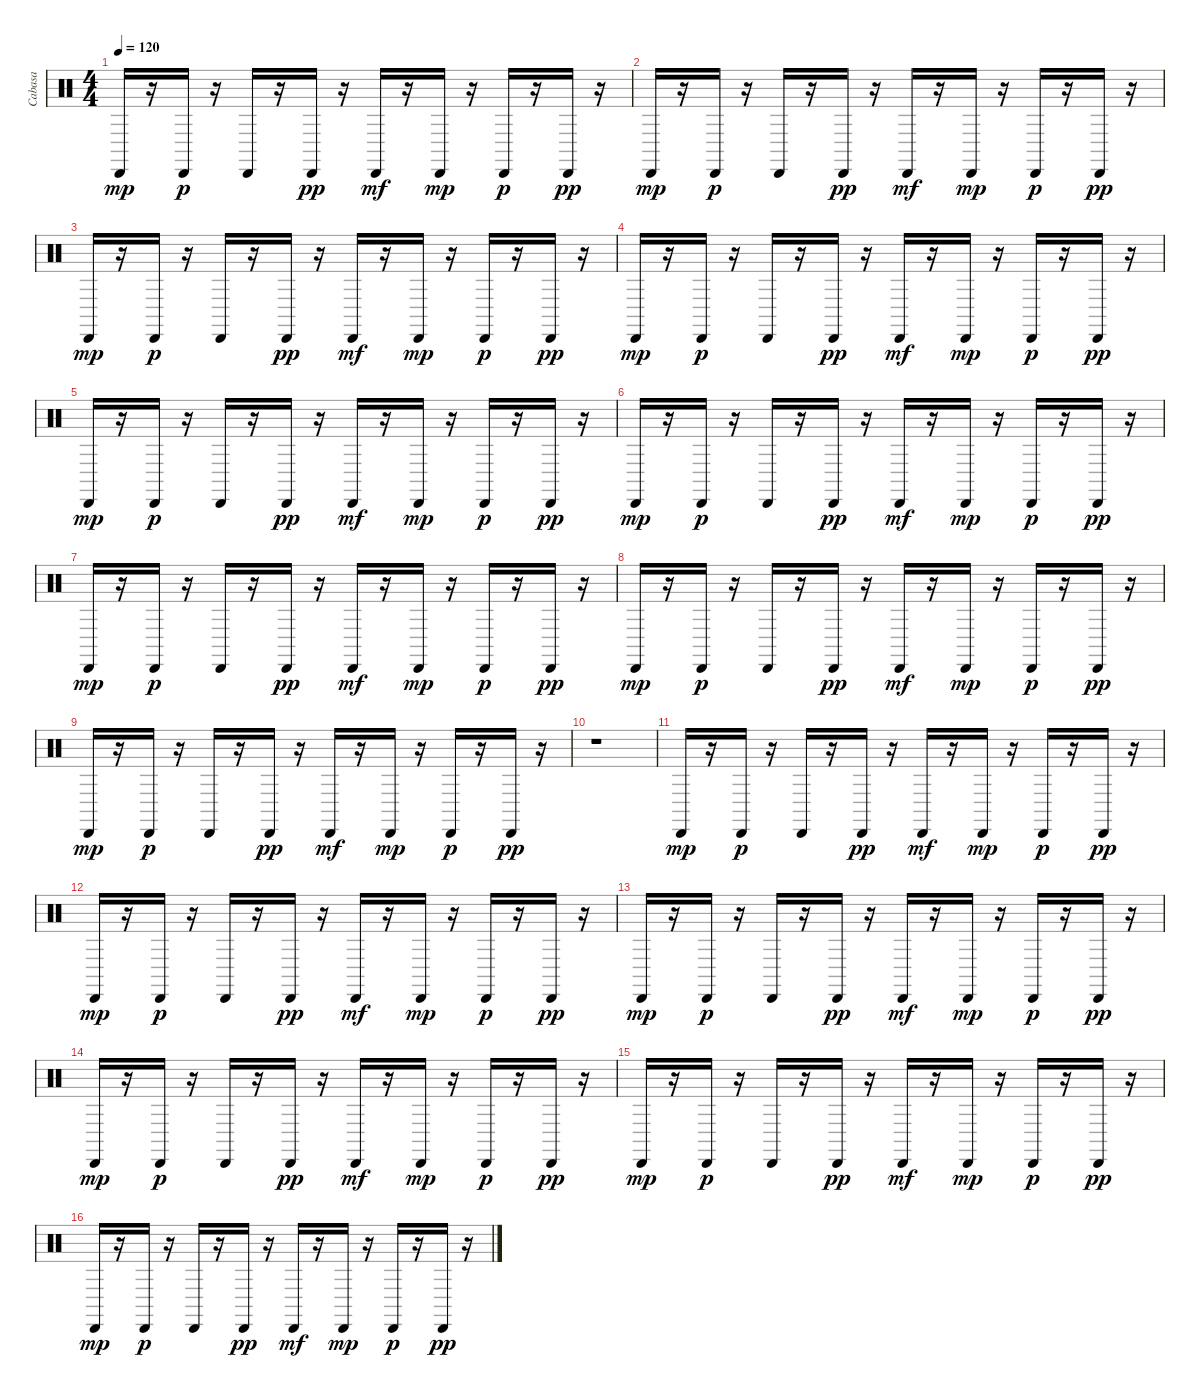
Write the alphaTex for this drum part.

\track ("Cabasa" "Cabasa") {instrument percussion}
\staff {score}
\articulation defaults
\ts (4 4)
\tempo 120
\clef neutral
\ks c "Cabasa (hit)".16{dy mp}
r.16 "Cabasa (hit)".16{dy p} r.16 "Cabasa (hit)".16 r.16 "Cabasa (hit)".16{dy pp} r.16 "Cabasa (hit)".16{dy mf} r.16 "Cabasa (hit)".16{dy mp} r.16 "Cabasa (hit)".16{dy p} r.16 "Cabasa (hit)".16{dy pp} r.16 |
"Cabasa (hit)".16{dy mp} r.16 "Cabasa (hit)".16{dy p} r.16 "Cabasa (hit)".16 r.16 "Cabasa (hit)".16{dy pp} r.16 "Cabasa (hit)".16{dy mf} r.16 "Cabasa (hit)".16{dy mp} r.16 "Cabasa (hit)".16{dy p} r.16 "Cabasa (hit)".16{dy pp} r.16 |
"Cabasa (hit)".16{dy mp} r.16 "Cabasa (hit)".16{dy p} r.16 "Cabasa (hit)".16 r.16 "Cabasa (hit)".16{dy pp} r.16 "Cabasa (hit)".16{dy mf} r.16 "Cabasa (hit)".16{dy mp} r.16 "Cabasa (hit)".16{dy p} r.16 "Cabasa (hit)".16{dy pp} r.16 |
"Cabasa (hit)".16{dy mp} r.16 "Cabasa (hit)".16{dy p} r.16 "Cabasa (hit)".16 r.16 "Cabasa (hit)".16{dy pp} r.16 "Cabasa (hit)".16{dy mf} r.16 "Cabasa (hit)".16{dy mp} r.16 "Cabasa (hit)".16{dy p} r.16 "Cabasa (hit)".16{dy pp} r.16 |
"Cabasa (hit)".16{dy mp} r.16 "Cabasa (hit)".16{dy p} r.16 "Cabasa (hit)".16 r.16 "Cabasa (hit)".16{dy pp} r.16 "Cabasa (hit)".16{dy mf} r.16 "Cabasa (hit)".16{dy mp} r.16 "Cabasa (hit)".16{dy p} r.16 "Cabasa (hit)".16{dy pp} r.16 |
"Cabasa (hit)".16{dy mp} r.16 "Cabasa (hit)".16{dy p} r.16 "Cabasa (hit)".16 r.16 "Cabasa (hit)".16{dy pp} r.16 "Cabasa (hit)".16{dy mf} r.16 "Cabasa (hit)".16{dy mp} r.16 "Cabasa (hit)".16{dy p} r.16 "Cabasa (hit)".16{dy pp} r.16 |
"Cabasa (hit)".16{dy mp} r.16 "Cabasa (hit)".16{dy p} r.16 "Cabasa (hit)".16 r.16 "Cabasa (hit)".16{dy pp} r.16 "Cabasa (hit)".16{dy mf} r.16 "Cabasa (hit)".16{dy mp} r.16 "Cabasa (hit)".16{dy p} r.16 "Cabasa (hit)".16{dy pp} r.16 |
"Cabasa (hit)".16{dy mp} r.16 "Cabasa (hit)".16{dy p} r.16 "Cabasa (hit)".16 r.16 "Cabasa (hit)".16{dy pp} r.16 "Cabasa (hit)".16{dy mf} r.16 "Cabasa (hit)".16{dy mp} r.16 "Cabasa (hit)".16{dy p} r.16 "Cabasa (hit)".16{dy pp} r.16 |
"Cabasa (hit)".16{dy mp} r.16 "Cabasa (hit)".16{dy p} r.16 "Cabasa (hit)".16 r.16 "Cabasa (hit)".16{dy pp} r.16 "Cabasa (hit)".16{dy mf} r.16 "Cabasa (hit)".16{dy mp} r.16 "Cabasa (hit)".16{dy p} r.16 "Cabasa (hit)".16{dy pp} r.16 |
r.1 |
"Cabasa (hit)".16{dy mp} r.16 "Cabasa (hit)".16{dy p} r.16 "Cabasa (hit)".16 r.16 "Cabasa (hit)".16{dy pp} r.16 "Cabasa (hit)".16{dy mf} r.16 "Cabasa (hit)".16{dy mp} r.16 "Cabasa (hit)".16{dy p} r.16 "Cabasa (hit)".16{dy pp} r.16 |
"Cabasa (hit)".16{dy mp} r.16 "Cabasa (hit)".16{dy p} r.16 "Cabasa (hit)".16 r.16 "Cabasa (hit)".16{dy pp} r.16 "Cabasa (hit)".16{dy mf} r.16 "Cabasa (hit)".16{dy mp} r.16 "Cabasa (hit)".16{dy p} r.16 "Cabasa (hit)".16{dy pp} r.16 |
"Cabasa (hit)".16{dy mp} r.16 "Cabasa (hit)".16{dy p} r.16 "Cabasa (hit)".16 r.16 "Cabasa (hit)".16{dy pp} r.16 "Cabasa (hit)".16{dy mf} r.16 "Cabasa (hit)".16{dy mp} r.16 "Cabasa (hit)".16{dy p} r.16 "Cabasa (hit)".16{dy pp} r.16 |
"Cabasa (hit)".16{dy mp} r.16 "Cabasa (hit)".16{dy p} r.16 "Cabasa (hit)".16 r.16 "Cabasa (hit)".16{dy pp} r.16 "Cabasa (hit)".16{dy mf} r.16 "Cabasa (hit)".16{dy mp} r.16 "Cabasa (hit)".16{dy p} r.16 "Cabasa (hit)".16{dy pp} r.16 |
"Cabasa (hit)".16{dy mp} r.16 "Cabasa (hit)".16{dy p} r.16 "Cabasa (hit)".16 r.16 "Cabasa (hit)".16{dy pp} r.16 "Cabasa (hit)".16{dy mf} r.16 "Cabasa (hit)".16{dy mp} r.16 "Cabasa (hit)".16{dy p} r.16 "Cabasa (hit)".16{dy pp} r.16 |
"Cabasa (hit)".16{dy mp} r.16 "Cabasa (hit)".16{dy p} r.16 "Cabasa (hit)".16 r.16 "Cabasa (hit)".16{dy pp} r.16 "Cabasa (hit)".16{dy mf} r.16 "Cabasa (hit)".16{dy mp} r.16 "Cabasa (hit)".16{dy p} r.16 "Cabasa (hit)".16{dy pp} r.16
